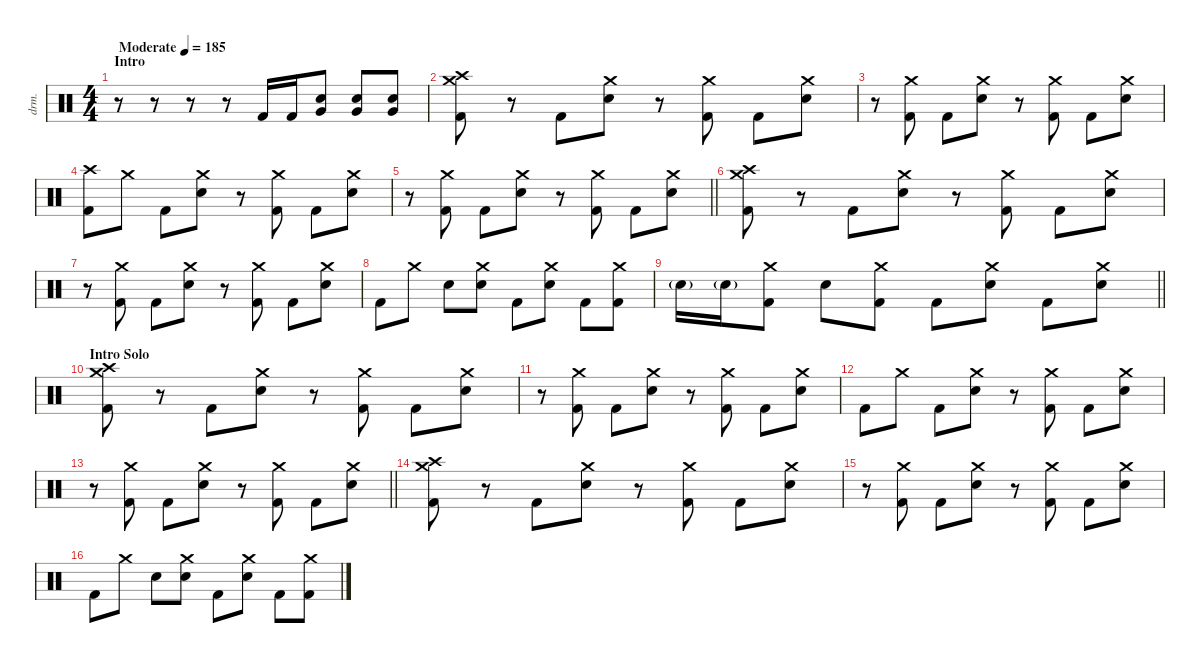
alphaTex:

\defaultSystemsLayout 4
\hideDynamics
\bracketExtendMode nobrackets
\track ("Drums - Šimon" "drm.") {instrument percussion}
\staff {score}
\articulation defaults
\ts (4 4)
\beaming (8 2 2 2 2)
\section ("" "Intro")
\tempo (185 "Moderate")
\clef neutral
\ks c
r.8{dy ff beam Down} r.8{beam Down} r.8{beam Down} r.8{beam Down} "Kick (hit) 2".16{beam Up} "Kick (hit) 2".16{beam Up} ("Snare (hit) 2" "Very Low Tom (hit)").8{beam Up} ("Snare (hit) 2" "Very Low Tom (hit)").8{beam Up} ("Snare (hit) 2" "Very Low Tom (hit)").8{beam Up} |
("Crash medium (hit)" "Kick (hit) 2" "Crash high (hit)").8{beam Down} r.8{beam Down} "Kick (hit) 2".8{beam Down} ("Snare (hit) 2" "Crash medium (hit)").8{beam Down} r.8{beam Down} ("Kick (hit) 2" "Crash medium (hit)").8{beam Down} "Kick (hit) 2".8{beam Down} ("Snare (hit) 2" "Crash medium (hit)").8{beam Down} |
r.8{beam Down} ("Kick (hit) 2" "Crash medium (hit)").8{beam Down} "Kick (hit) 2".8{beam Down} ("Snare (hit) 2" "Crash medium (hit)").8{beam Down} r.8{beam Down} ("Kick (hit) 2" "Crash medium (hit)").8{beam Down} "Kick (hit) 2".8{beam Down} ("Snare (hit) 2" "Crash medium (hit)").8{beam Down} |
("Kick (hit) 2" "Crash high (hit)").8{beam Down} "Crash medium (hit)".8{beam Down} "Kick (hit) 2".8{beam Down} ("Snare (hit) 2" "Crash medium (hit)").8{beam Down} r.8{beam Down} ("Kick (hit) 2" "Crash medium (hit)").8{beam Down} "Kick (hit) 2".8{beam Down} ("Snare (hit) 2" "Crash medium (hit)").8{beam Down} |
\barLineRight lightlight
r.8{beam Down} ("Kick (hit) 2" "Crash medium (hit)").8{beam Down} "Kick (hit) 2".8{beam Down} ("Snare (hit) 2" "Crash medium (hit)").8{beam Down} r.8{beam Down} ("Kick (hit) 2" "Crash medium (hit)").8{beam Down} "Kick (hit) 2".8{beam Down} ("Snare (hit) 2" "Crash medium (hit)").8{beam Down} |
("Crash medium (hit)" "Kick (hit) 2" "Crash high (hit)").8{beam Down} r.8{beam Down} "Kick (hit) 2".8{beam Down} ("Snare (hit) 2" "Crash medium (hit)").8{beam Down} r.8{beam Down} ("Kick (hit) 2" "Crash medium (hit)").8{beam Down} "Kick (hit) 2".8{beam Down} ("Snare (hit) 2" "Crash medium (hit)").8{beam Down} |
r.8{beam Down} ("Kick (hit) 2" "Crash medium (hit)").8{beam Down} "Kick (hit) 2".8{beam Down} ("Snare (hit) 2" "Crash medium (hit)").8{beam Down} r.8{beam Down} ("Kick (hit) 2" "Crash medium (hit)").8{beam Down} "Kick (hit) 2".8{beam Down} ("Snare (hit) 2" "Crash medium (hit)").8{beam Down} |
"Kick (hit) 2".8{beam Down} "Crash medium (hit)".8{beam Down} "Snare (hit) 2".8{beam Down} ("Snare (hit) 2" "Crash medium (hit)").8{beam Down} "Kick (hit) 2".8{beam Down} ("Crash medium (hit)" "Snare (hit) 2").8{beam Down} "Kick (hit) 2".8{beam Down} ("Crash medium (hit)" "Kick (hit) 2").8{beam Down} |
\barLineRight lightlight "Snare (hit) 2"{g}.16{beam Down} "Snare (hit) 2"{g}.16{beam Down}
("Kick (hit) 2" "Crash medium (hit)").8{beam Down} "Snare (hit) 2".8{beam Down} ("Crash medium (hit)" "Kick (hit) 2").8{beam Down} "Kick (hit) 2".8{beam Down} ("Crash medium (hit)" "Snare (hit) 2").8{beam Down} "Kick (hit) 2".8{beam Down} ("Snare (hit) 2" "Crash medium (hit)").8{beam Down} |
\section ("" "Intro Solo")
("Crash medium (hit)" "Kick (hit) 2" "Crash high (hit)").8{beam Down} r.8{beam Down} "Kick (hit) 2".8{beam Down} ("Snare (hit) 2" "Crash medium (hit)").8{beam Down} r.8{beam Down} ("Kick (hit) 2" "Crash medium (hit)").8{beam Down} "Kick (hit) 2".8{beam Down} ("Snare (hit) 2" "Crash medium (hit)").8{beam Down} |
r.8{beam Down} ("Kick (hit) 2" "Crash medium (hit)").8{beam Down} "Kick (hit) 2".8{beam Down} ("Snare (hit) 2" "Crash medium (hit)").8{beam Down} r.8{beam Down} ("Kick (hit) 2" "Crash medium (hit)").8{beam Down} "Kick (hit) 2".8{beam Down} ("Snare (hit) 2" "Crash medium (hit)").8{beam Down} |
"Kick (hit) 2".8{beam Down} "Crash medium (hit)".8{beam Down} "Kick (hit) 2".8{beam Down} ("Snare (hit) 2" "Crash medium (hit)").8{beam Down} r.8{beam Down} ("Kick (hit) 2" "Crash medium (hit)").8{beam Down} "Kick (hit) 2".8{beam Down} ("Snare (hit) 2" "Crash medium (hit)").8{beam Down} |
\barLineRight lightlight
r.8{beam Down} ("Kick (hit) 2" "Crash medium (hit)").8{beam Down} "Kick (hit) 2".8{beam Down} ("Snare (hit) 2" "Crash medium (hit)").8{beam Down} r.8{beam Down} ("Kick (hit) 2" "Crash medium (hit)").8{beam Down} "Kick (hit) 2".8{beam Down} ("Snare (hit) 2" "Crash medium (hit)").8{beam Down} |
("Crash medium (hit)" "Kick (hit) 2" "Crash high (hit)").8{beam Down} r.8{beam Down} "Kick (hit) 2".8{beam Down} ("Snare (hit) 2" "Crash medium (hit)").8{beam Down} r.8{beam Down} ("Kick (hit) 2" "Crash medium (hit)").8{beam Down} "Kick (hit) 2".8{beam Down} ("Snare (hit) 2" "Crash medium (hit)").8{beam Down} |
r.8{beam Down} ("Kick (hit) 2" "Crash medium (hit)").8{beam Down} "Kick (hit) 2".8{beam Down} ("Snare (hit) 2" "Crash medium (hit)").8{beam Down} r.8{beam Down} ("Kick (hit) 2" "Crash medium (hit)").8{beam Down} "Kick (hit) 2".8{beam Down} ("Snare (hit) 2" "Crash medium (hit)").8{beam Down} |
"Kick (hit) 2".8{beam Down} "Crash medium (hit)".8{beam Down} "Snare (hit) 2".8{beam Down} ("Snare (hit) 2" "Crash medium (hit)").8{beam Down} "Kick (hit) 2".8{beam Down} ("Crash medium (hit)" "Snare (hit) 2").8{beam Down} "Kick (hit) 2".8{beam Down} ("Crash medium (hit)" "Kick (hit) 2").8{beam Down}
